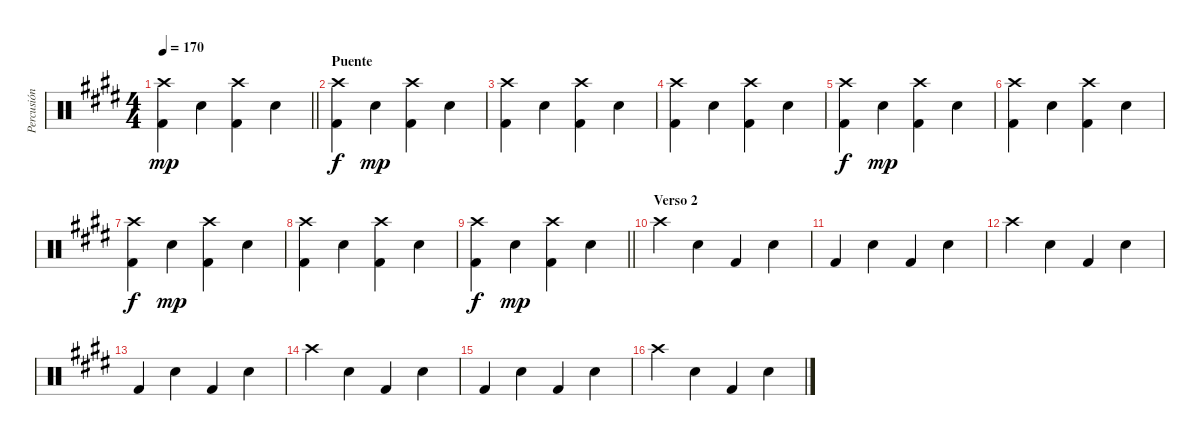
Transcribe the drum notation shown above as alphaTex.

\track ("Percusión" "Percusión") {instrument percussion}
\staff {score}
\articulation defaults
\ts (4 4)
\tempo 170
\clef neutral
\barLineRight lightlight
\ks e
("Kick (hit) 2" "Crash high (hit)").4{dy mp} "Snare (hit) 2".4 ("Kick (hit) 2" "Crash high (hit)").4 "Snare (hit) 2".4 |
\section ("" "Puente")
("Kick (hit) 2" "Crash high (hit)").4{dy f} "Snare (hit) 2".4{dy mp} ("Kick (hit) 2" "Crash high (hit)").4 "Snare (hit) 2".4 |
("Kick (hit) 2" "Crash high (hit)").4 "Snare (hit) 2".4 ("Kick (hit) 2" "Crash high (hit)").4 "Snare (hit) 2".4 |
("Kick (hit) 2" "Crash high (hit)").4 "Snare (hit) 2".4 ("Kick (hit) 2" "Crash high (hit)").4 "Snare (hit) 2".4 |
("Kick (hit) 2" "Crash high (hit)").4{dy f} "Snare (hit) 2".4{dy mp} ("Kick (hit) 2" "Crash high (hit)").4 "Snare (hit) 2".4 |
("Kick (hit) 2" "Crash high (hit)").4 "Snare (hit) 2".4 ("Kick (hit) 2" "Crash high (hit)").4 "Snare (hit) 2".4 |
("Kick (hit) 2" "Crash high (hit)").4{dy f} "Snare (hit) 2".4{dy mp} ("Kick (hit) 2" "Crash high (hit)").4 "Snare (hit) 2".4 |
("Kick (hit) 2" "Crash high (hit)").4 "Snare (hit) 2".4 ("Kick (hit) 2" "Crash high (hit)").4 "Snare (hit) 2".4 |
\barLineRight lightlight
("Kick (hit) 2" "Crash high (hit)").4{dy f} "Snare (hit) 2".4{dy mp} ("Kick (hit) 2" "Crash high (hit)").4 "Snare (hit) 2".4 |
\section ("" "Verso 2")
"Crash high (hit)".4 "Snare (hit) 2".4 "Kick (hit) 2".4 "Snare (hit) 2".4 |
"Kick (hit) 2".4 "Snare (hit) 2".4 "Kick (hit) 2".4 "Snare (hit) 2".4 |
"Crash high (hit)".4 "Snare (hit) 2".4 "Kick (hit) 2".4 "Snare (hit) 2".4 |
"Kick (hit) 2".4 "Snare (hit) 2".4 "Kick (hit) 2".4 "Snare (hit) 2".4 |
"Crash high (hit)".4 "Snare (hit) 2".4 "Kick (hit) 2".4 "Snare (hit) 2".4 |
"Kick (hit) 2".4 "Snare (hit) 2".4 "Kick (hit) 2".4 "Snare (hit) 2".4 |
"Crash high (hit)".4 "Snare (hit) 2".4 "Kick (hit) 2".4 "Snare (hit) 2".4
